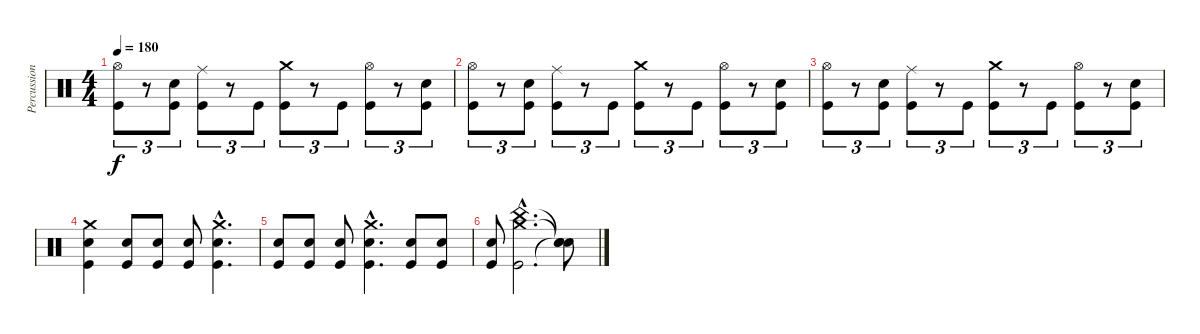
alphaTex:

\track ("Percussion" "Percussion") {instrument percussion}
\staff {score}
\articulation defaults
\ts (4 4)
\tempo 180
\clef neutral
\ks c
("Hi-Hat (open)" "Kick (hit)").8{tu (3 2) dy f} r.8{tu (3 2)} ("Electric Snare (hit)" "Kick (hit)").8{tu (3 2)} ("Ride (middle)" "Kick (hit)").8{tu (3 2)} r.8{tu (3 2)} "Kick (hit)".8{tu (3 2)} ("Crash medium (hit)" "Kick (hit)").8{tu (3 2)} r.8{tu (3 2)} "Kick (hit)".8{tu (3 2)} ("Hi-Hat (open)" "Kick (hit)").8{tu (3 2)} r.8{tu (3 2)} ("Electric Snare (hit)" "Kick (hit)").8{tu (3 2)} |
("Hi-Hat (open)" "Kick (hit)").8{tu (3 2)} r.8{tu (3 2)} ("Electric Snare (hit)" "Kick (hit)").8{tu (3 2)} ("Ride (middle)" "Kick (hit)").8{tu (3 2)} r.8{tu (3 2)} "Kick (hit)".8{tu (3 2)} ("Crash medium (hit)" "Kick (hit)").8{tu (3 2)} r.8{tu (3 2)} "Kick (hit)".8{tu (3 2)} ("Hi-Hat (open)" "Kick (hit)").8{tu (3 2)} r.8{tu (3 2)} ("Electric Snare (hit)" "Kick (hit)").8{tu (3 2)} |
("Hi-Hat (open)" "Kick (hit)").8{tu (3 2)} r.8{tu (3 2)} ("Electric Snare (hit)" "Kick (hit)").8{tu (3 2)} ("Ride (middle)" "Kick (hit)").8{tu (3 2)} r.8{tu (3 2)} "Kick (hit)".8{tu (3 2)} ("Crash medium (hit)" "Kick (hit)").8{tu (3 2)} r.8{tu (3 2)} "Kick (hit)".8{tu (3 2)} ("Hi-Hat (open)" "Kick (hit)").8{tu (3 2)} r.8{tu (3 2)} ("Electric Snare (hit)" "Kick (hit)").8{tu (3 2)} |
("Crash medium (hit)" "Electric Snare (hit)" "Kick (hit)").4 ("Electric Snare (hit)" "Kick (hit)").8 ("Electric Snare (hit)" "Kick (hit)").8 ("Electric Snare (hit)" "Kick (hit)").8 ("Crash medium (hit)"{hac} "Electric Snare (hit)"{hac} "Kick (hit)"{hac}).4{d} |
("Electric Snare (hit)" "Kick (hit)").8 ("Electric Snare (hit)" "Kick (hit)").8 ("Electric Snare (hit)" "Kick (hit)").8 ("Crash medium (hit)"{hac} "Electric Snare (hit)"{hac} "Kick (hit)"{hac}).4{d} ("Electric Snare (hit)" "Kick (hit)").8 ("Electric Snare (hit)" "Kick (hit)").8 |
("Electric Snare (hit)" "Kick (hit)").8 ("China (hit)"{hac} "Crash medium (hit)"{hac} "Kick (hit)"{hac}).2{d} ("Snare (hit)"{t} "Snare (hit)"{t} "Snare (hit)"{t}).8
